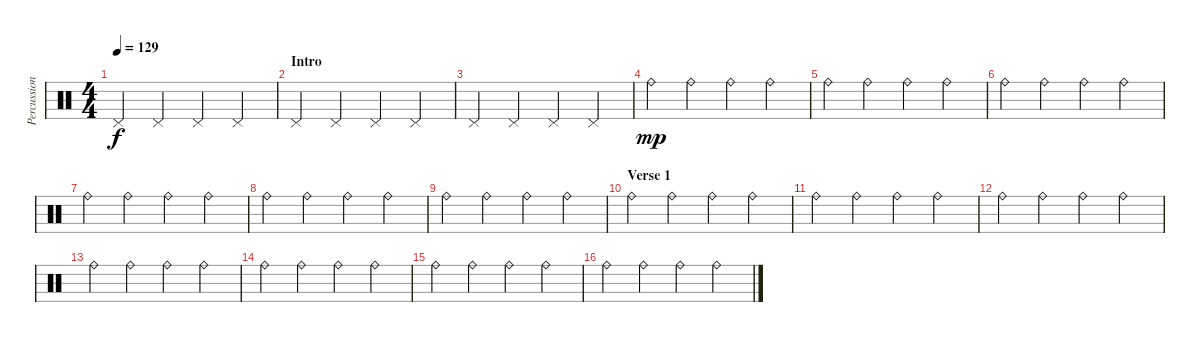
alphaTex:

\track ("Percussion" "Percussion") {instrument percussion}
\staff {score}
\articulation defaults
\ts (4 4)
\tempo 129
\clef neutral
\ks c "Pedal Hi-Hat (hit)".4{dy f} "Pedal Hi-Hat (hit)".4 "Pedal Hi-Hat (hit)".4 "Pedal Hi-Hat (hit)".4
|
\section ("" "Intro")
"Pedal Hi-Hat (hit)".4 "Pedal Hi-Hat (hit)".4 "Pedal Hi-Hat (hit)".4 "Pedal Hi-Hat (hit)".4 |
"Pedal Hi-Hat (hit)".4 "Pedal Hi-Hat (hit)".4 "Pedal Hi-Hat (hit)".4 "Pedal Hi-Hat (hit)".4 |
"Ride (bell)".4{dy mp} "Ride (bell)".4 "Ride (bell)".4 "Ride (bell)".4 |
"Ride (bell)".4 "Ride (bell)".4 "Ride (bell)".4 "Ride (bell)".4 |
"Ride (bell)".4 "Ride (bell)".4 "Ride (bell)".4 "Ride (bell)".4 |
"Ride (bell)".4 "Ride (bell)".4 "Ride (bell)".4 "Ride (bell)".4 |
"Ride (bell)".4 "Ride (bell)".4 "Ride (bell)".4 "Ride (bell)".4 |
"Ride (bell)".4 "Ride (bell)".4 "Ride (bell)".4 "Ride (bell)".4 |
\section ("" "Verse 1")
"Ride (bell)".4 "Ride (bell)".4 "Ride (bell)".4 "Ride (bell)".4 |
"Ride (bell)".4 "Ride (bell)".4 "Ride (bell)".4 "Ride (bell)".4 |
"Ride (bell)".4 "Ride (bell)".4 "Ride (bell)".4 "Ride (bell)".4 |
"Ride (bell)".4 "Ride (bell)".4 "Ride (bell)".4 "Ride (bell)".4 |
"Ride (bell)".4 "Ride (bell)".4 "Ride (bell)".4 "Ride (bell)".4 |
"Ride (bell)".4 "Ride (bell)".4 "Ride (bell)".4 "Ride (bell)".4 |
"Ride (bell)".4 "Ride (bell)".4 "Ride (bell)".4 "Ride (bell)".4
